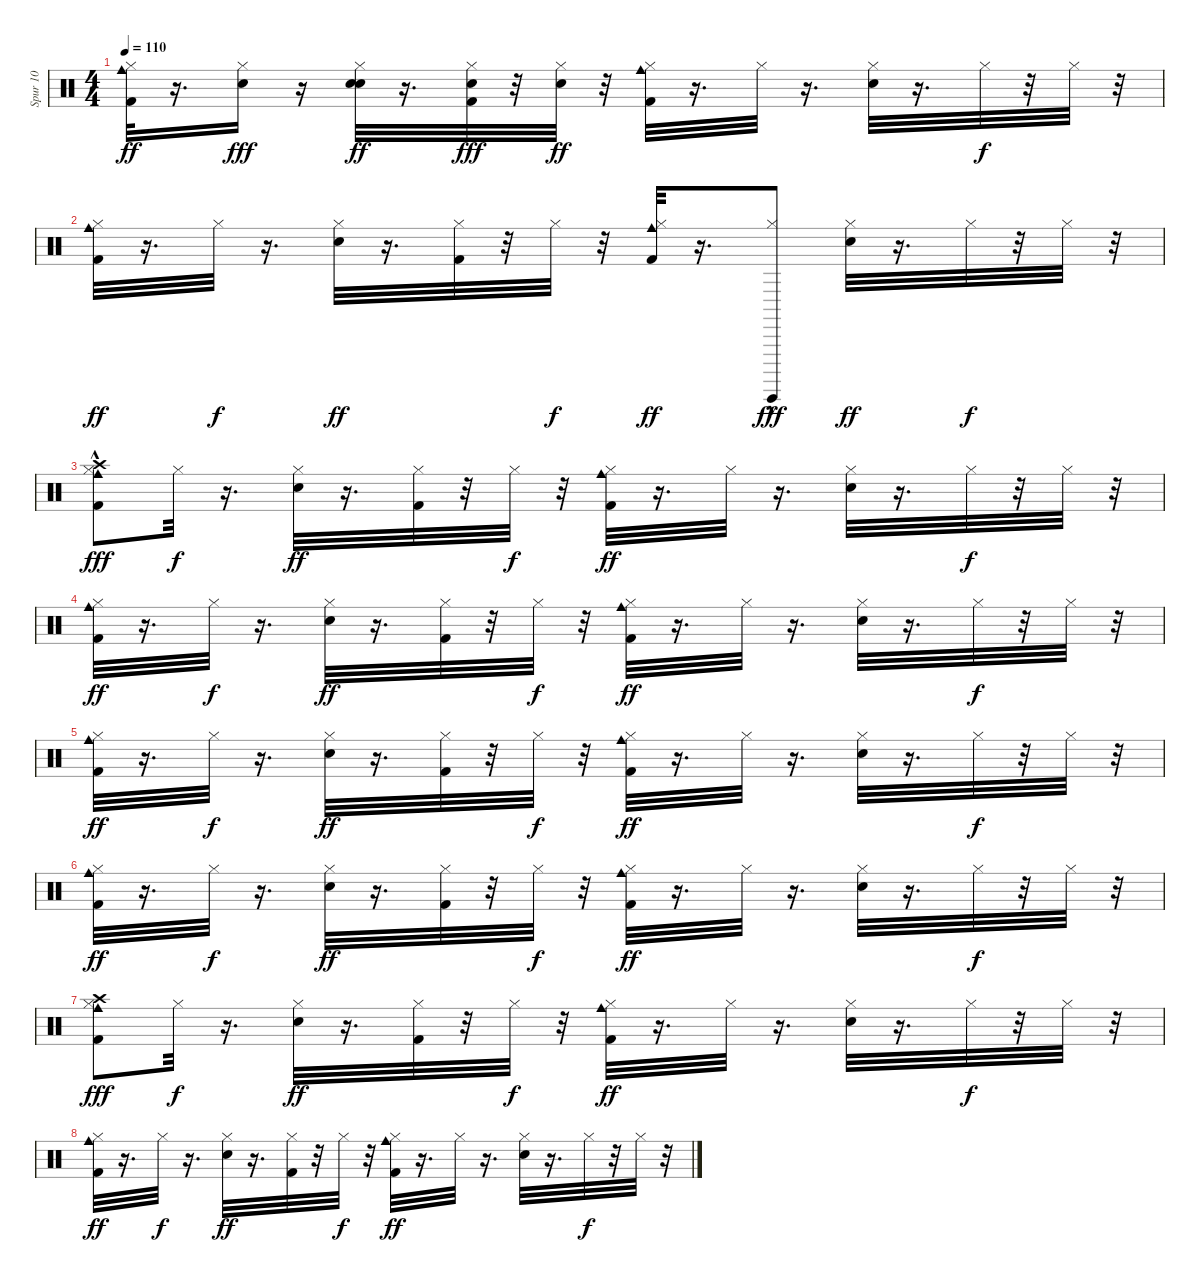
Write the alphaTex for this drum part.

\track ("Spur 10" "Spur 10") {instrument percussion}
\staff {score}
\articulation defaults
\ts (4 4)
\tempo 110
\clef neutral
\ks c
("Kick (hit) 2" "Cowbell medium (hit)" "Hi-Hat (closed)").32{dy ff} r.16{d} ("Hi-Hat (closed)" "Hand Clap (hit)").16{dy fff} r.16 ("Snare (hit) 2" "Hand Clap (hit)" "Hi-Hat (closed)").32{dy ff} r.16{d} ("Kick (hit) 2" "Hi-Hat (closed)" "Hand Clap (hit)").32{dy fff} r.32 ("Hi-Hat (closed)" "Hand Clap (hit)").32{dy ff} r.32 ("Kick (hit) 2" "Cowbell medium (hit)" "Hi-Hat (closed)").32 r.16{d} "Hi-Hat (closed)".32 r.16{d} ("Snare (hit) 2" "Hi-Hat (closed)").32 r.16{d} "Hi-Hat (closed)".32{dy f} r.32 "Hi-Hat (closed)".32 r.32 |
("Kick (hit) 2" "Cowbell medium (hit)" "Hi-Hat (closed)").32{dy ff} r.16{d} "Hi-Hat (closed)".32{dy f} r.16{d} ("Snare (hit) 2" "Hi-Hat (closed)").32{dy ff} r.16{d} ("Kick (hit) 2" "Hi-Hat (closed)").32 r.32 "Hi-Hat (closed)".32{dy f} r.32 ("Kick (hit) 2" "Cowbell medium (hit)" "Hi-Hat (closed)").32{dy ff} r.16{d} ("Hi-Hat (closed)" "Guiro (hit)"{hac}).8{dy fff} ("Snare (hit) 2" "Hi-Hat (closed)").32{dy ff} r.16{d} "Hi-Hat (closed)".32{dy f} r.32 "Hi-Hat (closed)".32 r.32 |
("Kick (hit) 2" "Cowbell medium (hit)" "Hi-Hat (closed)" "Crash high (hit)"{hac}).8{dy fff} "Hi-Hat (closed)".32{dy f} r.16{d} ("Snare (hit) 2" "Hi-Hat (closed)").32{dy ff} r.16{d} ("Kick (hit) 2" "Hi-Hat (closed)").32 r.32 "Hi-Hat (closed)".32{dy f} r.32 ("Kick (hit) 2" "Cowbell medium (hit)" "Hi-Hat (closed)").32{dy ff} r.16{d} "Hi-Hat (closed)".32 r.16{d} ("Snare (hit) 2" "Hi-Hat (closed)").32 r.16{d} "Hi-Hat (closed)".32{dy f} r.32 "Hi-Hat (closed)".32 r.32 |
("Kick (hit) 2" "Cowbell medium (hit)" "Hi-Hat (closed)").32{dy ff} r.16{d} "Hi-Hat (closed)".32{dy f} r.16{d} ("Snare (hit) 2" "Hi-Hat (closed)").32{dy ff} r.16{d} ("Kick (hit) 2" "Hi-Hat (closed)").32 r.32 "Hi-Hat (closed)".32{dy f} r.32 ("Kick (hit) 2" "Cowbell medium (hit)" "Hi-Hat (closed)").32{dy ff} r.16{d} "Hi-Hat (closed)".32 r.16{d} ("Snare (hit) 2" "Hi-Hat (closed)").32 r.16{d} "Hi-Hat (closed)".32{dy f} r.32 "Hi-Hat (closed)".32 r.32 |
("Kick (hit) 2" "Cowbell medium (hit)" "Hi-Hat (closed)").32{dy ff} r.16{d} "Hi-Hat (closed)".32{dy f} r.16{d} ("Snare (hit) 2" "Hi-Hat (closed)").32{dy ff} r.16{d} ("Kick (hit) 2" "Hi-Hat (closed)").32 r.32 "Hi-Hat (closed)".32{dy f} r.32 ("Kick (hit) 2" "Cowbell medium (hit)" "Hi-Hat (closed)").32{dy ff} r.16{d} "Hi-Hat (closed)".32 r.16{d} ("Snare (hit) 2" "Hi-Hat (closed)").32 r.16{d} "Hi-Hat (closed)".32{dy f} r.32 "Hi-Hat (closed)".32 r.32 |
("Kick (hit) 2" "Cowbell medium (hit)" "Hi-Hat (closed)").32{dy ff} r.16{d} "Hi-Hat (closed)".32{dy f} r.16{d} ("Snare (hit) 2" "Hi-Hat (closed)").32{dy ff} r.16{d} ("Kick (hit) 2" "Hi-Hat (closed)").32 r.32 "Hi-Hat (closed)".32{dy f} r.32 ("Kick (hit) 2" "Cowbell medium (hit)" "Hi-Hat (closed)").32{dy ff} r.16{d} "Hi-Hat (closed)".32 r.16{d} ("Snare (hit) 2" "Hi-Hat (closed)").32 r.16{d} "Hi-Hat (closed)".32{dy f} r.32 "Hi-Hat (closed)".32 r.32 |
("Kick (hit) 2" "Cowbell medium (hit)" "Hi-Hat (closed)" "Crash high (hit)").8{dy fff} "Hi-Hat (closed)".32{dy f} r.16{d} ("Snare (hit) 2" "Hi-Hat (closed)").32{dy ff} r.16{d} ("Kick (hit) 2" "Hi-Hat (closed)").32 r.32 "Hi-Hat (closed)".32{dy f} r.32 ("Kick (hit) 2" "Cowbell medium (hit)" "Hi-Hat (closed)").32{dy ff} r.16{d} "Hi-Hat (closed)".32 r.16{d} ("Snare (hit) 2" "Hi-Hat (closed)").32 r.16{d} "Hi-Hat (closed)".32{dy f} r.32 "Hi-Hat (closed)".32 r.32 |
("Kick (hit) 2" "Cowbell medium (hit)" "Hi-Hat (closed)").32{dy ff} r.16{d} "Hi-Hat (closed)".32{dy f} r.16{d} ("Snare (hit) 2" "Hi-Hat (closed)").32{dy ff} r.16{d} ("Kick (hit) 2" "Hi-Hat (closed)").32 r.32 "Hi-Hat (closed)".32{dy f} r.32 ("Kick (hit) 2" "Cowbell medium (hit)" "Hi-Hat (closed)").32{dy ff} r.16{d} "Hi-Hat (closed)".32 r.16{d} ("Snare (hit) 2" "Hi-Hat (closed)").32 r.16{d} "Hi-Hat (closed)".32{dy f} r.32 "Hi-Hat (closed)".32 r.32
